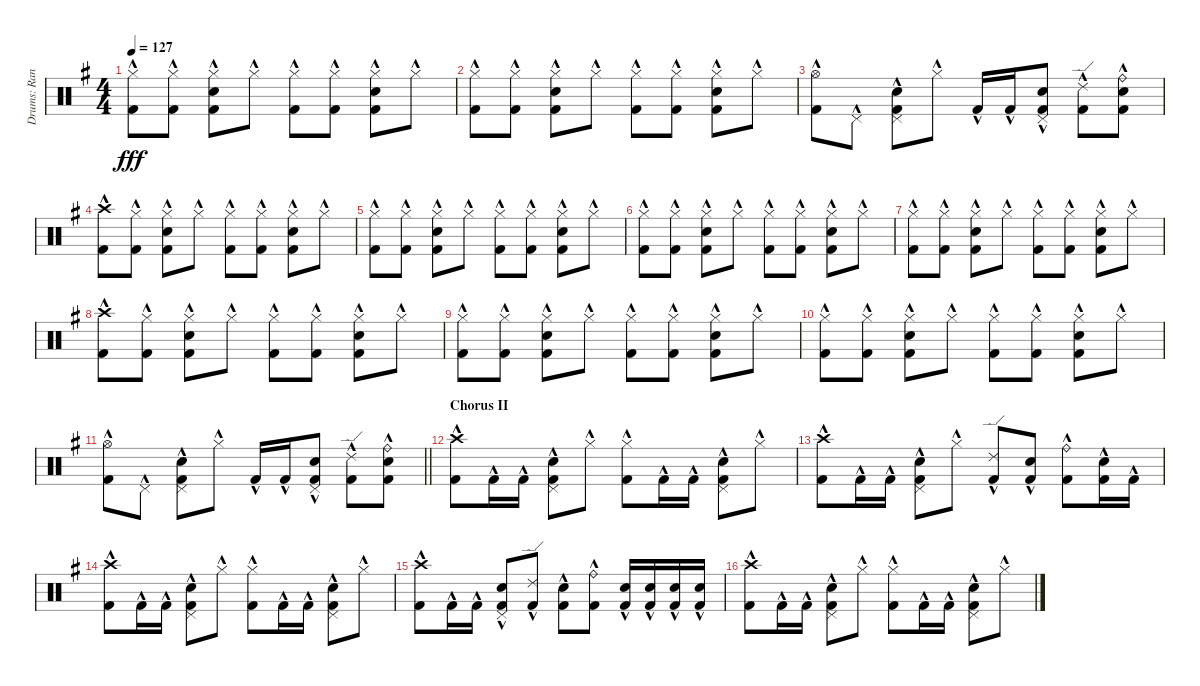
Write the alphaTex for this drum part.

\track ("Drums: Randy" "Drums: Ran") {instrument percussion}
\staff {score}
\articulation defaults
\ts (4 4)
\tempo 127
\clef neutral
\ks g
("Hi-Hat (closed)"{hac} "Kick (hit) 2"{hac}).8{dy fff} ("Hi-Hat (closed)"{hac} "Kick (hit) 2"{hac}).8 ("Hi-Hat (closed)"{hac} "Snare (hit) 2"{hac} "Kick (hit) 2"{hac}).8 "Hi-Hat (closed)"{hac}.8 ("Hi-Hat (closed)"{hac} "Kick (hit) 2"{hac}).8 ("Hi-Hat (closed)"{hac} "Kick (hit) 2"{hac}).8 ("Hi-Hat (closed)"{hac} "Snare (hit) 2"{hac} "Kick (hit) 2"{hac}).8 "Hi-Hat (closed)"{hac}.8 |
("Hi-Hat (closed)"{hac} "Kick (hit) 2"{hac}).8 ("Hi-Hat (closed)"{hac} "Kick (hit) 2"{hac}).8 ("Hi-Hat (closed)"{hac} "Snare (hit) 2"{hac} "Kick (hit) 2"{hac}).8 "Hi-Hat (closed)"{hac}.8 ("Hi-Hat (closed)"{hac} "Kick (hit) 2"{hac}).8 ("Hi-Hat (closed)"{hac} "Kick (hit) 2"{hac}).8 ("Hi-Hat (closed)"{hac} "Snare (hit) 2"{hac} "Kick (hit) 2"{hac}).8 "Hi-Hat (closed)"{hac}.8 |
("Hi-Hat (open)"{hac} "Kick (hit) 2"{hac}).8 "Pedal Hi-Hat (hit)"{hac}.8 ("Pedal Hi-Hat (hit)"{hac} "Snare (hit) 2"{hac} "Kick (hit) 2"{hac}).8 "Hi-Hat (closed)"{hac}.8 "Kick (hit) 2"{hac}.16 "Kick (hit) 2"{hac}.16 ("Pedal Hi-Hat (hit)"{hac} "Snare (hit) 2"{hac} "Kick (hit) 2"{hac}).8 ("Ride (edge) 2"{hac} "Kick (hit) 2"{hac}).8 ("Ride (bell)"{hac} "Snare (hit) 2"{hac} "Kick (hit) 2"{hac}).8 |
("Crash high (hit)"{hac} "Kick (hit) 2"{hac}).8 ("Hi-Hat (closed)"{hac} "Kick (hit) 2"{hac}).8 ("Hi-Hat (closed)"{hac} "Snare (hit) 2"{hac} "Kick (hit) 2"{hac}).8 "Hi-Hat (closed)"{hac}.8 ("Hi-Hat (closed)"{hac} "Kick (hit) 2"{hac}).8 ("Hi-Hat (closed)"{hac} "Kick (hit) 2"{hac}).8 ("Hi-Hat (closed)"{hac} "Snare (hit) 2"{hac} "Kick (hit) 2"{hac}).8 "Hi-Hat (closed)"{hac}.8 |
("Hi-Hat (closed)"{hac} "Kick (hit) 2"{hac}).8 ("Hi-Hat (closed)"{hac} "Kick (hit) 2"{hac}).8 ("Hi-Hat (closed)"{hac} "Snare (hit) 2"{hac} "Kick (hit) 2"{hac}).8 "Hi-Hat (closed)"{hac}.8 ("Hi-Hat (closed)"{hac} "Kick (hit) 2"{hac}).8 ("Hi-Hat (closed)"{hac} "Kick (hit) 2"{hac}).8 ("Hi-Hat (closed)"{hac} "Snare (hit) 2"{hac} "Kick (hit) 2"{hac}).8 "Hi-Hat (closed)"{hac}.8 |
("Hi-Hat (closed)"{hac} "Kick (hit) 2"{hac}).8 ("Hi-Hat (closed)"{hac} "Kick (hit) 2"{hac}).8 ("Hi-Hat (closed)"{hac} "Snare (hit) 2"{hac} "Kick (hit) 2"{hac}).8 "Hi-Hat (closed)"{hac}.8 ("Hi-Hat (closed)"{hac} "Kick (hit) 2"{hac}).8 ("Hi-Hat (closed)"{hac} "Kick (hit) 2"{hac}).8 ("Hi-Hat (closed)"{hac} "Snare (hit) 2"{hac} "Kick (hit) 2"{hac}).8 "Hi-Hat (closed)"{hac}.8 |
("Hi-Hat (closed)"{hac} "Kick (hit) 2"{hac}).8 ("Hi-Hat (closed)"{hac} "Kick (hit) 2"{hac}).8 ("Hi-Hat (closed)"{hac} "Snare (hit) 2"{hac} "Kick (hit) 2"{hac}).8 "Hi-Hat (closed)"{hac}.8 ("Hi-Hat (closed)"{hac} "Kick (hit) 2"{hac}).8 ("Hi-Hat (closed)"{hac} "Kick (hit) 2"{hac}).8 ("Hi-Hat (closed)"{hac} "Snare (hit) 2"{hac} "Kick (hit) 2"{hac}).8 "Hi-Hat (closed)"{hac}.8 |
("Crash high (hit)"{hac} "Kick (hit) 2"{hac}).8 ("Hi-Hat (closed)"{hac} "Kick (hit) 2"{hac}).8 ("Hi-Hat (closed)"{hac} "Snare (hit) 2"{hac} "Kick (hit) 2"{hac}).8 "Hi-Hat (closed)"{hac}.8 ("Hi-Hat (closed)"{hac} "Kick (hit) 2"{hac}).8 ("Hi-Hat (closed)"{hac} "Kick (hit) 2"{hac}).8 ("Hi-Hat (closed)"{hac} "Snare (hit) 2"{hac} "Kick (hit) 2"{hac}).8 "Hi-Hat (closed)"{hac}.8 |
("Hi-Hat (closed)"{hac} "Kick (hit) 2"{hac}).8 ("Hi-Hat (closed)"{hac} "Kick (hit) 2"{hac}).8 ("Hi-Hat (closed)"{hac} "Snare (hit) 2"{hac} "Kick (hit) 2"{hac}).8 "Hi-Hat (closed)"{hac}.8 ("Hi-Hat (closed)"{hac} "Kick (hit) 2"{hac}).8 ("Hi-Hat (closed)"{hac} "Kick (hit) 2"{hac}).8 ("Hi-Hat (closed)"{hac} "Snare (hit) 2"{hac} "Kick (hit) 2"{hac}).8 "Hi-Hat (closed)"{hac}.8 |
("Hi-Hat (closed)"{hac} "Kick (hit) 2"{hac}).8 ("Hi-Hat (closed)"{hac} "Kick (hit) 2"{hac}).8 ("Hi-Hat (closed)"{hac} "Snare (hit) 2"{hac} "Kick (hit) 2"{hac}).8 "Hi-Hat (closed)"{hac}.8 ("Hi-Hat (closed)"{hac} "Kick (hit) 2"{hac}).8 ("Hi-Hat (closed)"{hac} "Kick (hit) 2"{hac}).8 ("Hi-Hat (closed)"{hac} "Snare (hit) 2"{hac} "Kick (hit) 2"{hac}).8 "Hi-Hat (closed)"{hac}.8 |
\barLineRight lightlight
("Hi-Hat (open)"{hac} "Kick (hit) 2"{hac}).8 "Pedal Hi-Hat (hit)"{hac}.8 ("Pedal Hi-Hat (hit)"{hac} "Snare (hit) 2"{hac} "Kick (hit) 2"{hac}).8 "Hi-Hat (closed)"{hac}.8 "Kick (hit) 2"{hac}.16 "Kick (hit) 2"{hac}.16 ("Pedal Hi-Hat (hit)"{hac} "Snare (hit) 2"{hac} "Kick (hit) 2"{hac}).8 ("Ride (edge) 2"{hac} "Kick (hit) 2"{hac}).8 ("Ride (bell)"{hac} "Snare (hit) 2"{hac} "Kick (hit) 2"{hac}).8 |
\section ("" "Chorus II")
("Crash high (hit)"{hac} "Kick (hit) 2"{hac}).8 "Kick (hit) 2"{hac}.16 "Kick (hit) 2"{hac}.16 ("Pedal Hi-Hat (hit)"{hac} "Snare (hit) 2"{hac} "Kick (hit) 2"{hac}).8 "Hi-Hat (closed)"{hac}.8 ("Hi-Hat (closed)"{hac} "Kick (hit) 2"{hac}).8 "Kick (hit) 2"{hac}.16 "Kick (hit) 2"{hac}.16 ("Pedal Hi-Hat (hit)"{hac} "Snare (hit) 2"{hac} "Kick (hit) 2"{hac}).8 "Hi-Hat (closed)"{hac}.8 |
("Crash high (hit)"{hac} "Kick (hit) 2"{hac}).8 "Kick (hit) 2"{hac}.16 "Kick (hit) 2"{hac}.16 ("Pedal Hi-Hat (hit)"{hac} "Snare (hit) 2"{hac} "Kick (hit) 2"{hac}).8 "Hi-Hat (closed)"{hac}.8 ("Ride (edge) 2"{hac} "Kick (hit) 2"{hac}).8 ("Snare (hit) 2"{hac} "Kick (hit) 2"{hac}).8 ("Ride (bell)"{hac} "Kick (hit) 2"{hac}).8 ("Snare (hit) 2"{hac} "Kick (hit) 2"{hac}).16 "Kick (hit) 2"{hac}.16 |
("Crash high (hit)"{hac} "Kick (hit) 2"{hac}).8 "Kick (hit) 2"{hac}.16 "Kick (hit) 2"{hac}.16 ("Pedal Hi-Hat (hit)"{hac} "Snare (hit) 2"{hac} "Kick (hit) 2"{hac}).8 "Hi-Hat (closed)"{hac}.8 ("Hi-Hat (closed)"{hac} "Kick (hit) 2"{hac}).8 "Kick (hit) 2"{hac}.16 "Kick (hit) 2"{hac}.16 ("Pedal Hi-Hat (hit)"{hac} "Snare (hit) 2"{hac} "Kick (hit) 2"{hac}).8 "Hi-Hat (closed)"{hac}.8 |
("Crash high (hit)"{hac} "Kick (hit) 2"{hac}).8 "Kick (hit) 2"{hac}.16 "Kick (hit) 2"{hac}.16 ("Pedal Hi-Hat (hit)"{hac} "Snare (hit) 2"{hac} "Kick (hit) 2"{hac}).8 ("Ride (edge) 2"{hac} "Kick (hit) 2"{hac}).8 ("Snare (hit) 2"{hac} "Kick (hit) 2"{hac}).8 ("Ride (bell)"{hac} "Kick (hit) 2"{hac}).8 ("Snare (hit) 2"{hac} "Kick (hit) 2"{hac}).16 ("Snare (hit) 2"{hac} "Kick (hit) 2"{hac}).16 ("Snare (hit) 2"{hac} "Kick (hit) 2"{hac}).16 ("Snare (hit) 2"{hac} "Kick (hit) 2"{hac}).16 |
("Crash high (hit)"{hac} "Kick (hit) 2"{hac}).8 "Kick (hit) 2"{hac}.16 "Kick (hit) 2"{hac}.16 ("Pedal Hi-Hat (hit)"{hac} "Snare (hit) 2"{hac} "Kick (hit) 2"{hac}).8 "Hi-Hat (closed)"{hac}.8 ("Hi-Hat (closed)"{hac} "Kick (hit) 2"{hac}).8 "Kick (hit) 2"{hac}.16 "Kick (hit) 2"{hac}.16 ("Pedal Hi-Hat (hit)"{hac} "Snare (hit) 2"{hac} "Kick (hit) 2"{hac}).8 "Hi-Hat (closed)"{hac}.8
